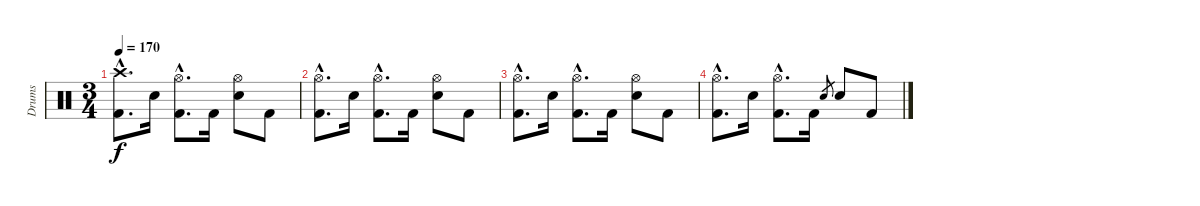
\track ("Drums" "Drums") {instrument percussion}
\staff {score}
\articulation defaults
\ts (3 4)
\tempo 170
\clef neutral
\ks c
("Crash high (hit)"{hac} "Kick (hit) 2"{hac}).8{d dy f} "Electric Snare (hit)".16 ("Hi-Hat (open)"{hac} "Kick (hit) 2"{hac}).8{d} "Kick (hit) 2".16 ("Hi-Hat (open)" "Electric Snare (hit)").8 "Kick (hit) 2".8 |
("Hi-Hat (open)"{hac} "Kick (hit) 2"{hac}).8{d} "Electric Snare (hit)".16 ("Hi-Hat (open)"{hac} "Kick (hit) 2"{hac}).8{d} "Kick (hit) 2".16 ("Hi-Hat (open)" "Electric Snare (hit)").8 "Kick (hit) 2".8 |
("Hi-Hat (open)"{hac} "Kick (hit) 2"{hac}).8{d} "Electric Snare (hit)".16 ("Hi-Hat (open)"{hac} "Kick (hit) 2"{hac}).8{d} "Kick (hit) 2".16 ("Hi-Hat (open)" "Electric Snare (hit)").8 "Kick (hit) 2".8 |
("Hi-Hat (open)"{hac} "Kick (hit) 2"{hac}).8{d} "Electric Snare (hit)".16 ("Hi-Hat (open)"{hac} "Kick (hit) 2"{hac}).8{d} "Kick (hit) 2".16 "Electric Snare (hit)".8{gr} "Electric Snare (hit)".8 "Kick (hit) 2".8
